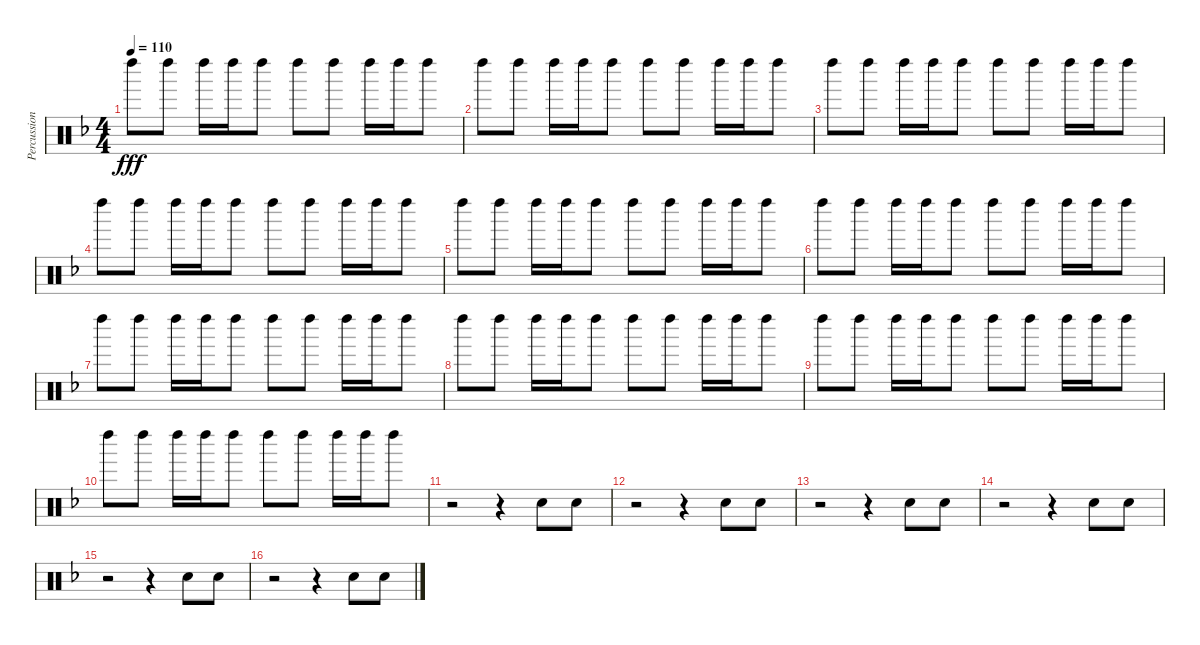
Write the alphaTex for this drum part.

\track ("Percussions" "Percussion") {instrument percussion}
\staff {score}
\articulation defaults
\ts (4 4)
\tempo 110
\clef neutral
\ks f "Left Maraca (hit)".8{dy fff} "Left Maraca (hit)".8 "Left Maraca (hit)".16 "Left Maraca (hit)".16 "Left Maraca (hit)".8 "Left Maraca (hit)".8 "Left Maraca (hit)".8 "Left Maraca (hit)".16 "Left Maraca (hit)".16 "Left Maraca (hit)".8
|
"Left Maraca (hit)".8 "Left Maraca (hit)".8 "Left Maraca (hit)".16 "Left Maraca (hit)".16 "Left Maraca (hit)".8 "Left Maraca (hit)".8 "Left Maraca (hit)".8 "Left Maraca (hit)".16 "Left Maraca (hit)".16 "Left Maraca (hit)".8 |
"Left Maraca (hit)".8 "Left Maraca (hit)".8 "Left Maraca (hit)".16 "Left Maraca (hit)".16 "Left Maraca (hit)".8 "Left Maraca (hit)".8 "Left Maraca (hit)".8 "Left Maraca (hit)".16 "Left Maraca (hit)".16 "Left Maraca (hit)".8 |
"Left Maraca (hit)".8 "Left Maraca (hit)".8 "Left Maraca (hit)".16 "Left Maraca (hit)".16 "Left Maraca (hit)".8 "Left Maraca (hit)".8 "Left Maraca (hit)".8 "Left Maraca (hit)".16 "Left Maraca (hit)".16 "Left Maraca (hit)".8 |
"Left Maraca (hit)".8 "Left Maraca (hit)".8 "Left Maraca (hit)".16 "Left Maraca (hit)".16 "Left Maraca (hit)".8 "Left Maraca (hit)".8 "Left Maraca (hit)".8 "Left Maraca (hit)".16 "Left Maraca (hit)".16 "Left Maraca (hit)".8 |
"Left Maraca (hit)".8 "Left Maraca (hit)".8 "Left Maraca (hit)".16 "Left Maraca (hit)".16 "Left Maraca (hit)".8 "Left Maraca (hit)".8 "Left Maraca (hit)".8 "Left Maraca (hit)".16 "Left Maraca (hit)".16 "Left Maraca (hit)".8 |
"Left Maraca (hit)".8 "Left Maraca (hit)".8 "Left Maraca (hit)".16 "Left Maraca (hit)".16 "Left Maraca (hit)".8 "Left Maraca (hit)".8 "Left Maraca (hit)".8 "Left Maraca (hit)".16 "Left Maraca (hit)".16 "Left Maraca (hit)".8 |
"Left Maraca (hit)".8 "Left Maraca (hit)".8 "Left Maraca (hit)".16 "Left Maraca (hit)".16 "Left Maraca (hit)".8 "Left Maraca (hit)".8 "Left Maraca (hit)".8 "Left Maraca (hit)".16 "Left Maraca (hit)".16 "Left Maraca (hit)".8 |
"Left Maraca (hit)".8 "Left Maraca (hit)".8 "Left Maraca (hit)".16 "Left Maraca (hit)".16 "Left Maraca (hit)".8 "Left Maraca (hit)".8 "Left Maraca (hit)".8 "Left Maraca (hit)".16 "Left Maraca (hit)".16 "Left Maraca (hit)".8 |
"Left Maraca (hit)".8 "Left Maraca (hit)".8 "Left Maraca (hit)".16 "Left Maraca (hit)".16 "Left Maraca (hit)".8 "Left Maraca (hit)".8 "Left Maraca (hit)".8 "Left Maraca (hit)".16 "Left Maraca (hit)".16 "Left Maraca (hit)".8 |
r.2 r.4 "Hand Clap (hit)".8 "Hand Clap (hit)".8 |
r.2 r.4 "Hand Clap (hit)".8 "Hand Clap (hit)".8 |
r.2 r.4 "Hand Clap (hit)".8 "Hand Clap (hit)".8 |
r.2 r.4 "Hand Clap (hit)".8 "Hand Clap (hit)".8 |
r.2 r.4 "Hand Clap (hit)".8 "Hand Clap (hit)".8 |
r.2 r.4 "Hand Clap (hit)".8 "Hand Clap (hit)".8
